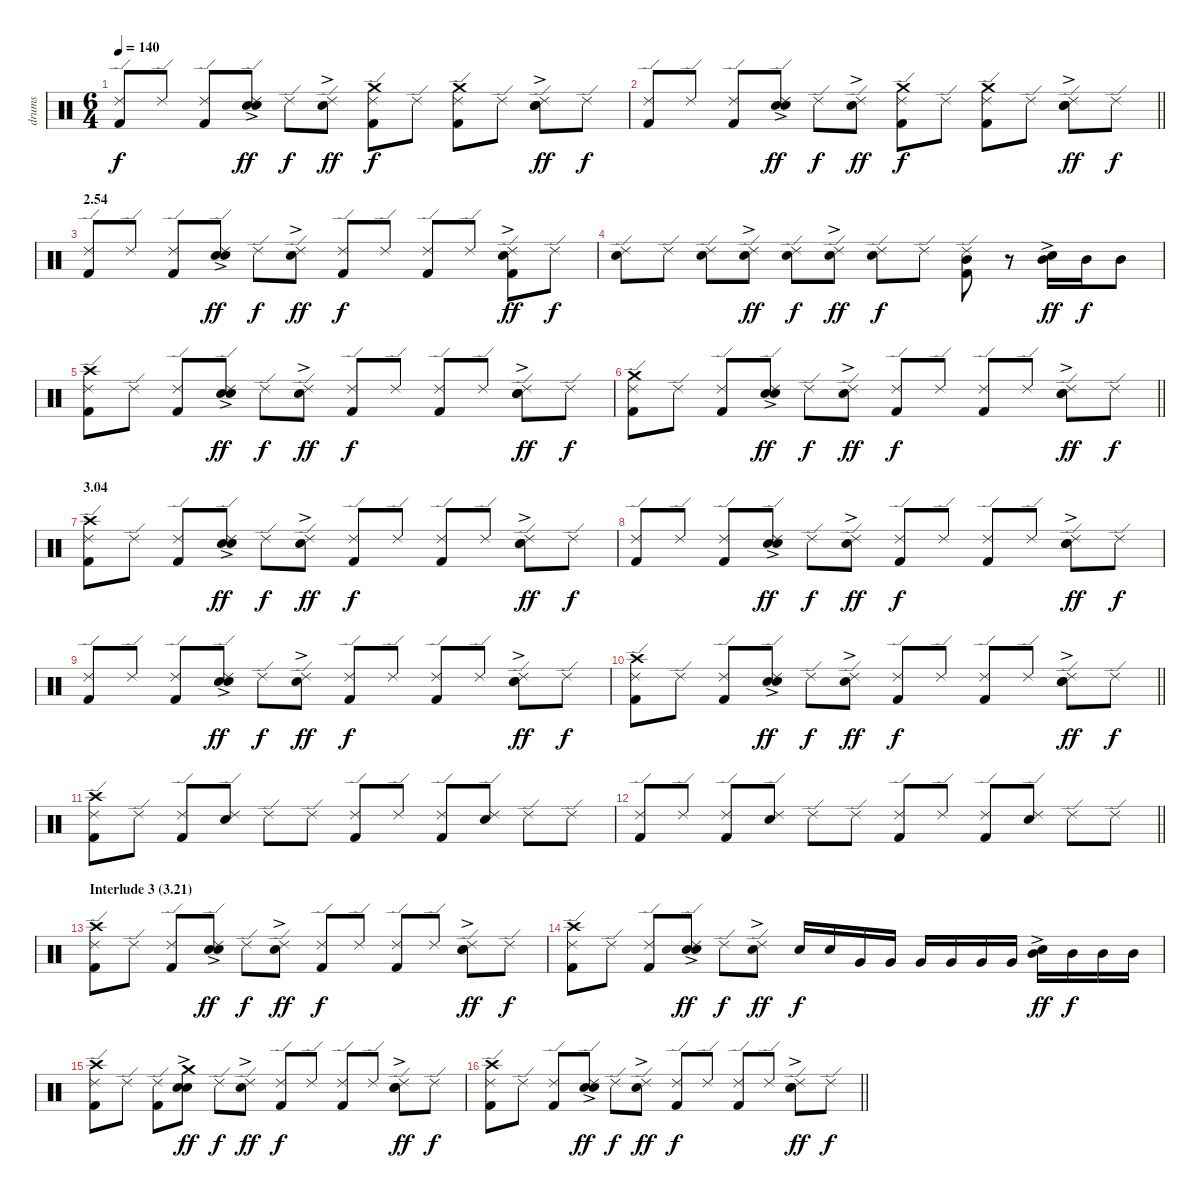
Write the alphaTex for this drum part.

\track ("drums" "drums") {instrument percussion}
\staff {score}
\articulation defaults
\ts (6 4)
\tempo 140
\clef neutral
\ks c
("Ride (edge) 2" "Kick (hit) 2").8{dy f} "Ride (edge) 2".8 ("Ride (edge) 2" "Kick (hit) 2").8 ("Ride (edge) 2" "Hand Clap (hit)"{ac} "Electric Snare (hit)").8{dy ff} "Ride (edge) 2".8{dy f} ("Ride (edge) 2" "Hand Clap (hit)"{ac}).8{dy ff} ("Ride (edge) 2" "Crash medium (hit)" "Kick (hit) 2").8{dy f} "Ride (edge) 2".8 ("Ride (edge) 2" "Crash medium (hit)" "Kick (hit) 2").8 "Ride (edge) 2".8 ("Ride (edge) 2" "Hand Clap (hit)"{ac} "Electric Snare (hit)").8{dy ff} "Ride (edge) 2".8{dy f} |
\barLineRight lightlight
("Ride (edge) 2" "Kick (hit) 2").8 "Ride (edge) 2".8 ("Ride (edge) 2" "Kick (hit) 2").8 ("Ride (edge) 2" "Hand Clap (hit)"{ac} "Electric Snare (hit)").8{dy ff} "Ride (edge) 2".8{dy f} ("Ride (edge) 2" "Hand Clap (hit)"{ac}).8{dy ff} ("Ride (edge) 2" "Crash medium (hit)" "Kick (hit) 2").8{dy f} "Ride (edge) 2".8 ("Ride (edge) 2" "Crash medium (hit)" "Kick (hit) 2").8 "Ride (edge) 2".8 ("Ride (edge) 2" "Hand Clap (hit)"{ac} "Electric Snare (hit)").8{dy ff} "Ride (edge) 2".8{dy f} |
\section ("" "2.54")
("Ride (edge) 2" "Kick (hit) 2").8 "Ride (edge) 2".8 ("Ride (edge) 2" "Kick (hit) 2").8 ("Ride (edge) 2" "Hand Clap (hit)"{ac} "Electric Snare (hit)").8{dy ff} "Ride (edge) 2".8{dy f} ("Ride (edge) 2" "Hand Clap (hit)"{ac}).8{dy ff} ("Ride (edge) 2" "Kick (hit) 2").8{dy f} "Ride (edge) 2".8 ("Ride (edge) 2" "Kick (hit) 2").8 "Ride (edge) 2".8 ("Ride (edge) 2" "Hand Clap (hit)"{ac} "Kick (hit) 2").8{dy ff} "Ride (edge) 2".8{dy f} |
("Ride (edge) 2" "Electric Snare (hit)").8 "Ride (edge) 2".8 ("Ride (edge) 2" "Electric Snare (hit)").8 ("Ride (edge) 2" "Hand Clap (hit)"{ac}).8{dy ff} ("Ride (edge) 2" "Electric Snare (hit)").8{dy f} ("Ride (edge) 2" "Hand Clap (hit)"{ac}).8{dy ff} ("Ride (edge) 2" "Electric Snare (hit)").8{dy f} "Ride (edge) 2".8 ("Ride (edge) 2" "Mid Tom (hit)" "Kick (hit) 2").8 r.8 ("Hand Clap (hit)"{ac} "Mid Tom (hit)").16{dy ff} "Mid Tom (hit)".16{dy f} "Mid Tom (hit)".8 |
("Ride (edge) 2" "Crash high (hit)" "Kick (hit) 2").8 "Ride (edge) 2".8 ("Ride (edge) 2" "Kick (hit) 2").8 ("Ride (edge) 2" "Hand Clap (hit)"{ac} "Electric Snare (hit)").8{dy ff} "Ride (edge) 2".8{dy f} ("Ride (edge) 2" "Hand Clap (hit)"{ac}).8{dy ff} ("Ride (edge) 2" "Kick (hit) 2").8{dy f} "Ride (edge) 2".8 ("Ride (edge) 2" "Kick (hit) 2").8 "Ride (edge) 2".8 ("Ride (edge) 2" "Hand Clap (hit)"{ac} "Electric Snare (hit)").8{dy ff} "Ride (edge) 2".8{dy f} |
\barLineRight lightlight
("Ride (edge) 2" "Crash medium (hit)" "Kick (hit) 2").8 "Ride (edge) 2".8 ("Ride (edge) 2" "Kick (hit) 2").8 ("Ride (edge) 2" "Hand Clap (hit)"{ac} "Electric Snare (hit)").8{dy ff} "Ride (edge) 2".8{dy f} ("Ride (edge) 2" "Hand Clap (hit)"{ac}).8{dy ff} ("Ride (edge) 2" "Kick (hit) 2").8{dy f} "Ride (edge) 2".8 ("Ride (edge) 2" "Kick (hit) 2").8 "Ride (edge) 2".8 ("Ride (edge) 2" "Hand Clap (hit)"{ac} "Electric Snare (hit)").8{dy ff} "Ride (edge) 2".8{dy f} |
\section ("" "3.04")
("Ride (edge) 2" "Crash high (hit)" "Kick (hit) 2").8 "Ride (edge) 2".8 ("Ride (edge) 2" "Kick (hit) 2").8 ("Ride (edge) 2" "Hand Clap (hit)"{ac} "Electric Snare (hit)").8{dy ff} "Ride (edge) 2".8{dy f} ("Ride (edge) 2" "Hand Clap (hit)"{ac}).8{dy ff} ("Ride (edge) 2" "Kick (hit) 2").8{dy f} "Ride (edge) 2".8 ("Ride (edge) 2" "Kick (hit) 2").8 "Ride (edge) 2".8 ("Ride (edge) 2" "Hand Clap (hit)"{ac} "Electric Snare (hit)").8{dy ff} "Ride (edge) 2".8{dy f} |
("Ride (edge) 2" "Kick (hit) 2").8 "Ride (edge) 2".8 ("Ride (edge) 2" "Kick (hit) 2").8 ("Ride (edge) 2" "Hand Clap (hit)"{ac} "Electric Snare (hit)").8{dy ff} "Ride (edge) 2".8{dy f} ("Ride (edge) 2" "Hand Clap (hit)"{ac}).8{dy ff} ("Ride (edge) 2" "Kick (hit) 2").8{dy f} "Ride (edge) 2".8 ("Ride (edge) 2" "Kick (hit) 2").8 "Ride (edge) 2".8 ("Ride (edge) 2" "Hand Clap (hit)"{ac} "Electric Snare (hit)").8{dy ff} "Ride (edge) 2".8{dy f} |
("Ride (edge) 2" "Kick (hit) 2").8 "Ride (edge) 2".8 ("Ride (edge) 2" "Kick (hit) 2").8 ("Ride (edge) 2" "Hand Clap (hit)"{ac} "Electric Snare (hit)").8{dy ff} "Ride (edge) 2".8{dy f} ("Ride (edge) 2" "Hand Clap (hit)"{ac}).8{dy ff} ("Ride (edge) 2" "Kick (hit) 2").8{dy f} "Ride (edge) 2".8 ("Ride (edge) 2" "Kick (hit) 2").8 "Ride (edge) 2".8 ("Ride (edge) 2" "Hand Clap (hit)"{ac} "Electric Snare (hit)").8{dy ff} "Ride (edge) 2".8{dy f} |
\barLineRight lightlight
("Ride (edge) 2" "Crash high (hit)" "Kick (hit) 2").8 "Ride (edge) 2".8 ("Ride (edge) 2" "Kick (hit) 2").8 ("Ride (edge) 2" "Hand Clap (hit)"{ac} "Electric Snare (hit)").8{dy ff} "Ride (edge) 2".8{dy f} ("Ride (edge) 2" "Hand Clap (hit)"{ac}).8{dy ff} ("Ride (edge) 2" "Kick (hit) 2").8{dy f} "Ride (edge) 2".8 ("Ride (edge) 2" "Kick (hit) 2").8 "Ride (edge) 2".8 ("Ride (edge) 2" "Hand Clap (hit)"{ac} "Electric Snare (hit)").8{dy ff} "Ride (edge) 2".8{dy f} |
("Ride (edge) 2" "Crash high (hit)" "Kick (hit) 2").8 "Ride (edge) 2".8 ("Ride (edge) 2" "Kick (hit) 2").8 ("Ride (edge) 2" "Electric Snare (hit)").8 "Ride (edge) 2".8 "Ride (edge) 2".8 ("Ride (edge) 2" "Kick (hit) 2").8 "Ride (edge) 2".8 ("Ride (edge) 2" "Kick (hit) 2").8 ("Ride (edge) 2" "Electric Snare (hit)").8 "Ride (edge) 2".8 "Ride (edge) 2".8 |
\barLineRight lightlight
("Ride (edge) 2" "Kick (hit) 2").8 "Ride (edge) 2".8 ("Ride (edge) 2" "Kick (hit) 2").8 ("Ride (edge) 2" "Electric Snare (hit)").8 "Ride (edge) 2".8 "Ride (edge) 2".8 ("Ride (edge) 2" "Kick (hit) 2").8 "Ride (edge) 2".8 ("Ride (edge) 2" "Kick (hit) 2").8 ("Ride (edge) 2" "Electric Snare (hit)").8 "Ride (edge) 2".8 "Ride (edge) 2".8 |
\section ("" "Interlude 3 (3.21)")
("Ride (edge) 2" "Crash high (hit)" "Kick (hit) 2").8 "Ride (edge) 2".8 ("Ride (edge) 2" "Kick (hit) 2").8 ("Ride (edge) 2" "Hand Clap (hit)"{ac} "Electric Snare (hit)").8{dy ff} "Ride (edge) 2".8{dy f} ("Ride (edge) 2" "Hand Clap (hit)"{ac}).8{dy ff} ("Ride (edge) 2" "Kick (hit) 2").8{dy f} "Ride (edge) 2".8 ("Ride (edge) 2" "Kick (hit) 2").8 "Ride (edge) 2".8 ("Ride (edge) 2" "Hand Clap (hit)"{ac} "Electric Snare (hit)").8{dy ff} "Ride (edge) 2".8{dy f} |
("Ride (edge) 2" "Crash high (hit)" "Kick (hit) 2").8 "Ride (edge) 2".8 ("Ride (edge) 2" "Kick (hit) 2").8 ("Ride (edge) 2" "Hand Clap (hit)"{ac} "Electric Snare (hit)").8{dy ff} "Ride (edge) 2".8{dy f} ("Ride (edge) 2" "Hand Clap (hit)"{ac}).8{dy ff} "Electric Snare (hit)".16{dy f} "Electric Snare (hit)".16 "Very Low Tom (hit)".16 "Very Low Tom (hit)".16 "Very Low Tom (hit)".16 "Very Low Tom (hit)".16 "Very Low Tom (hit)".16 "Very Low Tom (hit)".16 ("Hand Clap (hit)"{ac} "Mid Tom (hit)").16{dy ff} "Mid Tom (hit)".16{dy f} "Mid Tom (hit)".16 "Mid Tom (hit)".16 |
("Ride (edge) 2" "Crash high (hit)" "Kick (hit) 2").8 "Ride (edge) 2".8 ("Ride (edge) 2" "Kick (hit) 2").8 ("Hand Clap (hit)"{ac} "Crash medium (hit)" "Electric Snare (hit)").8{dy ff} "Ride (edge) 2".8{dy f} ("Ride (edge) 2" "Hand Clap (hit)"{ac}).8{dy ff} ("Ride (edge) 2" "Kick (hit) 2").8{dy f} "Ride (edge) 2".8 ("Ride (edge) 2" "Kick (hit) 2").8 "Ride (edge) 2".8 ("Ride (edge) 2" "Hand Clap (hit)"{ac} "Electric Snare (hit)").8{dy ff} "Ride (edge) 2".8{dy f} |
\barLineRight lightlight
("Ride (edge) 2" "Crash high (hit)" "Kick (hit) 2").8 "Ride (edge) 2".8 ("Ride (edge) 2" "Kick (hit) 2").8 ("Ride (edge) 2" "Hand Clap (hit)"{ac} "Electric Snare (hit)").8{dy ff} "Ride (edge) 2".8{dy f} ("Ride (edge) 2" "Hand Clap (hit)"{ac}).8{dy ff} ("Ride (edge) 2" "Kick (hit) 2").8{dy f} "Ride (edge) 2".8 ("Ride (edge) 2" "Kick (hit) 2").8 "Ride (edge) 2".8 ("Ride (edge) 2" "Hand Clap (hit)"{ac} "Electric Snare (hit)").8{dy ff} "Ride (edge) 2".8{dy f}
